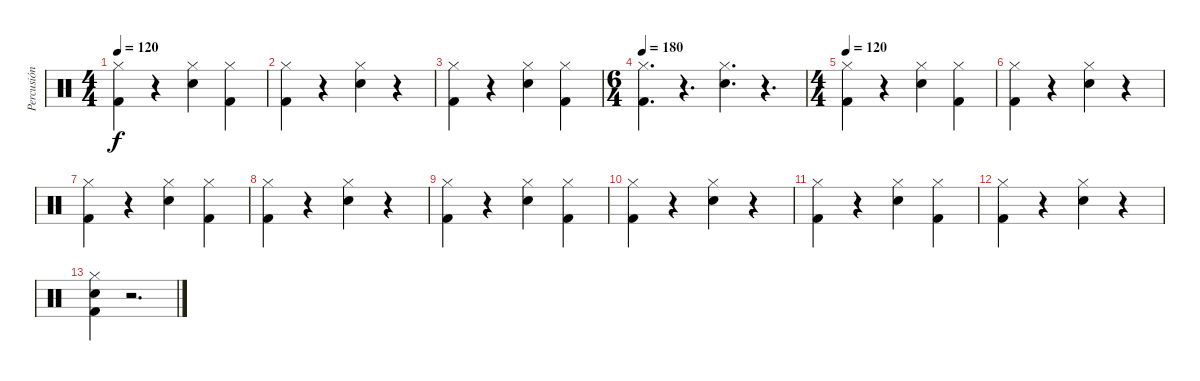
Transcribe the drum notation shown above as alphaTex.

\track ("Percusión" "Percusión") {instrument percussion}
\staff {score}
\articulation defaults
\ts (4 4)
\tempo 120
\clef neutral
\ks c
("Hi-Hat (closed)" "Kick (hit) 2").4{dy f} r.4 ("Hi-Hat (closed)" "Snare (hit) 2").4 ("Hi-Hat (closed)" "Kick (hit) 2").4 |
("Hi-Hat (closed)" "Kick (hit) 2").4 r.4 ("Hi-Hat (closed)" "Snare (hit) 2").4 r.4 |
("Hi-Hat (closed)" "Kick (hit) 2").4 r.4 ("Hi-Hat (closed)" "Snare (hit) 2").4 ("Hi-Hat (closed)" "Kick (hit) 2").4 |
\ts (6 4)
\tempo 180
("Hi-Hat (closed)" "Kick (hit) 2").4{d} r.4{d} ("Hi-Hat (closed)" "Snare (hit) 2").4{d} r.4{d} |
\ts (4 4)
\tempo 120
("Hi-Hat (closed)" "Kick (hit) 2").4 r.4 ("Hi-Hat (closed)" "Snare (hit) 2").4 ("Hi-Hat (closed)" "Kick (hit) 2").4 |
("Hi-Hat (closed)" "Kick (hit) 2").4 r.4 ("Hi-Hat (closed)" "Snare (hit) 2").4 r.4 |
("Hi-Hat (closed)" "Kick (hit) 2").4 r.4 ("Hi-Hat (closed)" "Snare (hit) 2").4 ("Hi-Hat (closed)" "Kick (hit) 2").4 |
("Hi-Hat (closed)" "Kick (hit) 2").4 r.4 ("Hi-Hat (closed)" "Snare (hit) 2").4 r.4 |
("Hi-Hat (closed)" "Kick (hit) 2").4 r.4 ("Hi-Hat (closed)" "Snare (hit) 2").4 ("Hi-Hat (closed)" "Kick (hit) 2").4 |
("Hi-Hat (closed)" "Kick (hit) 2").4 r.4 ("Hi-Hat (closed)" "Snare (hit) 2").4 r.4 |
("Hi-Hat (closed)" "Kick (hit) 2").4 r.4 ("Hi-Hat (closed)" "Snare (hit) 2").4 ("Hi-Hat (closed)" "Kick (hit) 2").4 |
("Hi-Hat (closed)" "Kick (hit) 2").4 r.4 ("Hi-Hat (closed)" "Snare (hit) 2").4 r.4 |
("Hi-Hat (closed)" "Snare (hit) 2" "Kick (hit) 2").4 r.2{d}
